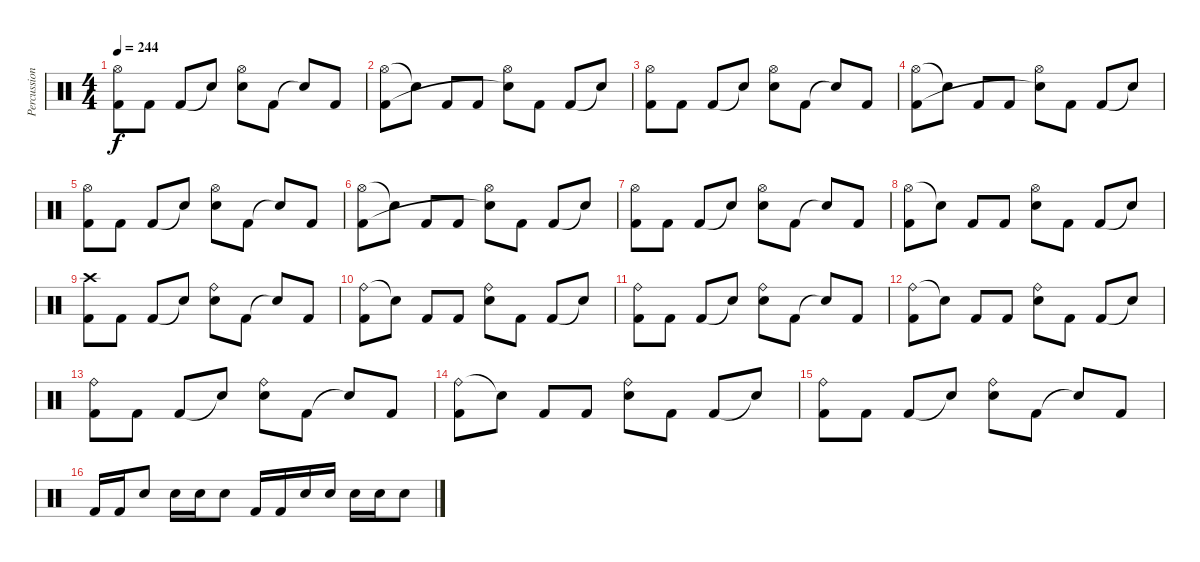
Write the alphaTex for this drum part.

\track ("Percussions" "Percussion") {instrument percussion}
\staff {score}
\articulation defaults
\ts (4 4)
\tempo 244
\clef neutral
\ks c
("Hi-Hat (open)" "Kick (hit) 2").8{dy f} "Kick (hit) 2".8 "Kick (hit) 2".8 "Snare (hit)"{t}.8 ("Hi-Hat (open)" "Electric Snare (hit)").8 "Kick (hit) 2".8 "Snare (hit)"{t}.8 "Kick (hit) 2".8 |
("Hi-Hat (open)" "Kick (hit) 2").8 "Snare (hit)"{t}.8 "Kick (hit) 2".8 "Kick (hit) 2".8 ("Hi-Hat (open)" "Snare (hit)"{t}).8 "Kick (hit) 2".8 "Kick (hit) 2".8 "Snare (hit)"{t}.8 |
("Hi-Hat (open)" "Kick (hit) 2").8 "Kick (hit) 2".8 "Kick (hit) 2".8 "Snare (hit)"{t}.8 ("Hi-Hat (open)" "Electric Snare (hit)").8 "Kick (hit) 2".8 "Snare (hit)"{t}.8 "Kick (hit) 2".8 |
("Hi-Hat (open)" "Kick (hit) 2").8 "Snare (hit)"{t}.8 "Kick (hit) 2".8 "Kick (hit) 2".8 ("Hi-Hat (open)" "Snare (hit)"{t}).8 "Kick (hit) 2".8 "Kick (hit) 2".8 "Snare (hit)"{t}.8 |
("Hi-Hat (open)" "Kick (hit) 2").8 "Kick (hit) 2".8 "Kick (hit) 2".8 "Snare (hit)"{t}.8 ("Hi-Hat (open)" "Electric Snare (hit)").8 "Kick (hit) 2".8 "Snare (hit)"{t}.8 "Kick (hit) 2".8 |
("Hi-Hat (open)" "Kick (hit) 2").8 "Snare (hit)"{t}.8 "Kick (hit) 2".8 "Kick (hit) 2".8 ("Hi-Hat (open)" "Snare (hit)"{t}).8 "Kick (hit) 2".8 "Kick (hit) 2".8 "Snare (hit)"{t}.8 |
("Hi-Hat (open)" "Kick (hit) 2").8 "Kick (hit) 2".8 "Kick (hit) 2".8 "Snare (hit)"{t}.8 ("Hi-Hat (open)" "Electric Snare (hit)").8 "Kick (hit) 2".8 "Snare (hit)"{t}.8 "Kick (hit) 2".8 |
("Hi-Hat (open)" "Kick (hit) 2").8 "Snare (hit)"{t}.8 "Kick (hit) 2".8 "Kick (hit) 2".8 ("Hi-Hat (open)" "Electric Snare (hit)").8 "Kick (hit) 2".8 "Kick (hit) 2".8 "Snare (hit)"{t}.8 |
("Crash high (hit)" "Kick (hit) 2").8 "Kick (hit) 2".8 "Kick (hit) 2".8 "Snare (hit)"{t}.8 ("Ride (bell)" "Electric Snare (hit)").8 "Kick (hit) 2".8 "Snare (hit)"{t}.8 "Kick (hit) 2".8 |
("Ride (bell)" "Kick (hit) 2").8 "Snare (hit)"{t}.8 "Kick (hit) 2".8 "Kick (hit) 2".8 ("Ride (bell)" "Electric Snare (hit)").8 "Kick (hit) 2".8 "Kick (hit) 2".8 "Snare (hit)"{t}.8 |
("Ride (bell)" "Kick (hit) 2").8 "Kick (hit) 2".8 "Kick (hit) 2".8 "Snare (hit)"{t}.8 ("Ride (bell)" "Electric Snare (hit)").8 "Kick (hit) 2".8 "Snare (hit)"{t}.8 "Kick (hit) 2".8 |
("Ride (bell)" "Kick (hit) 2").8 "Snare (hit)"{t}.8 "Kick (hit) 2".8 "Kick (hit) 2".8 ("Ride (bell)" "Electric Snare (hit)").8 "Kick (hit) 2".8 "Kick (hit) 2".8 "Snare (hit)"{t}.8 |
("Ride (bell)" "Kick (hit) 2").8 "Kick (hit) 2".8 "Kick (hit) 2".8 "Snare (hit)"{t}.8 ("Ride (bell)" "Electric Snare (hit)").8 "Kick (hit) 2".8 "Snare (hit)"{t}.8 "Kick (hit) 2".8 |
("Ride (bell)" "Kick (hit) 2").8 "Snare (hit)"{t}.8 "Kick (hit) 2".8 "Kick (hit) 2".8 ("Ride (bell)" "Electric Snare (hit)").8 "Kick (hit) 2".8 "Kick (hit) 2".8 "Snare (hit)"{t}.8 |
("Ride (bell)" "Kick (hit) 2").8 "Kick (hit) 2".8 "Kick (hit) 2".8 "Snare (hit)"{t}.8 ("Ride (bell)" "Electric Snare (hit)").8 "Kick (hit) 2".8 "Snare (hit)"{t}.8 "Kick (hit) 2".8 |
"Kick (hit) 2".16 "Kick (hit) 2".16 "Electric Snare (hit)".8 "Electric Snare (hit)".16 "Electric Snare (hit)".16 "Electric Snare (hit)".8 "Kick (hit) 2".16 "Kick (hit) 2".16 "Electric Snare (hit)".16 "Electric Snare (hit)".16 "Electric Snare (hit)".16 "Electric Snare (hit)".16 "Electric Snare (hit)".8
